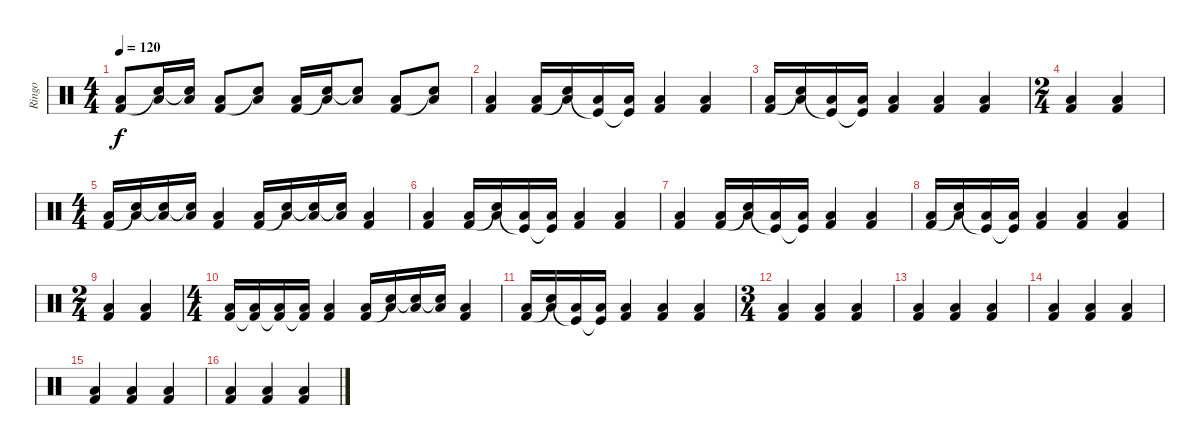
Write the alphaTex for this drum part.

\track ("Ringo" "Ringo") {instrument percussion}
\staff {score}
\articulation defaults
\ts (4 4)
\tempo 120
\clef neutral
\ks c
("Low Floor Tom (hit)" "Kick (hit) 2").8{dy f} ("Low Floor Tom (hit)" "Snare (hit)"{t}).16 ("Low Floor Tom (hit)" "Snare (hit)"{t}).16 ("Low Floor Tom (hit)" "Kick (hit) 2").8 ("Low Floor Tom (hit)" "Snare (hit)"{t}).8 ("Low Floor Tom (hit)" "Kick (hit) 2").16 ("Low Floor Tom (hit)" "Snare (hit)"{t}).16 ("Low Floor Tom (hit)" "Snare (hit)"{t}).8 ("Low Floor Tom (hit)" "Kick (hit) 2").8 ("Low Floor Tom (hit)" "Snare (hit)"{t}).8 |
("Low Floor Tom (hit)" "Kick (hit) 2").4 ("Low Floor Tom (hit)" "Kick (hit) 2").16 ("Low Floor Tom (hit)" "Snare (hit)"{t}).16 ("Low Floor Tom (hit)" "Kick (hit)"{t}).16 ("Low Floor Tom (hit)" "Kick (hit)"{t}).16 ("Low Floor Tom (hit)" "Kick (hit) 2").4 ("Low Floor Tom (hit)" "Kick (hit) 2").4 |
("Low Floor Tom (hit)" "Kick (hit) 2").16 ("Low Floor Tom (hit)" "Snare (hit)"{t}).16 ("Low Floor Tom (hit)" "Kick (hit)"{t}).16 ("Low Floor Tom (hit)" "Kick (hit)"{t}).16 ("Low Floor Tom (hit)" "Kick (hit) 2").4 ("Low Floor Tom (hit)" "Kick (hit) 2").4 ("Low Floor Tom (hit)" "Kick (hit) 2").4 |
\ts (2 4)
("Low Floor Tom (hit)" "Kick (hit) 2").4 ("Low Floor Tom (hit)" "Kick (hit) 2").4 |
\ts (4 4)
("Low Floor Tom (hit)" "Kick (hit) 2").16 ("Low Floor Tom (hit)" "Snare (hit)"{t}).16 ("Low Floor Tom (hit)" "Snare (hit)"{t}).16 ("Low Floor Tom (hit)" "Snare (hit)"{t}).16 ("Low Floor Tom (hit)" "Kick (hit) 2").4 ("Low Floor Tom (hit)" "Kick (hit) 2").16 ("Low Floor Tom (hit)" "Snare (hit)"{t}).16 ("Low Floor Tom (hit)" "Snare (hit)"{t}).16 ("Low Floor Tom (hit)" "Snare (hit)"{t}).16 ("Low Floor Tom (hit)" "Kick (hit) 2").4 |
("Low Floor Tom (hit)" "Kick (hit) 2").4 ("Low Floor Tom (hit)" "Kick (hit) 2").16 ("Low Floor Tom (hit)" "Snare (hit)"{t}).16 ("Low Floor Tom (hit)" "Kick (hit)"{t}).16 ("Low Floor Tom (hit)" "Kick (hit)"{t}).16 ("Low Floor Tom (hit)" "Kick (hit) 2").4 ("Low Floor Tom (hit)" "Kick (hit) 2").4 |
("Low Floor Tom (hit)" "Kick (hit) 2").4 ("Low Floor Tom (hit)" "Kick (hit) 2").16 ("Low Floor Tom (hit)" "Snare (hit)"{t}).16 ("Low Floor Tom (hit)" "Kick (hit)"{t}).16 ("Low Floor Tom (hit)" "Kick (hit)"{t}).16 ("Low Floor Tom (hit)" "Kick (hit) 2").4 ("Low Floor Tom (hit)" "Kick (hit) 2").4 |
("Low Floor Tom (hit)" "Kick (hit) 2").16 ("Low Floor Tom (hit)" "Snare (hit)"{t}).16 ("Low Floor Tom (hit)" "Kick (hit)"{t}).16 ("Low Floor Tom (hit)" "Kick (hit)"{t}).16 ("Low Floor Tom (hit)" "Kick (hit) 2").4 ("Low Floor Tom (hit)" "Kick (hit) 2").4 ("Low Floor Tom (hit)" "Kick (hit) 2").4 |
\ts (2 4)
("Low Floor Tom (hit)" "Kick (hit) 2").4 ("Low Floor Tom (hit)" "Kick (hit) 2").4 |
\ts (4 4)
("Low Floor Tom (hit)" "Kick (hit) 2").16 ("Low Floor Tom (hit)" "Kick (hit) 2"{t}).16 ("Low Floor Tom (hit)" "Kick (hit) 2"{t}).16 ("Low Floor Tom (hit)" "Kick (hit) 2"{t}).16 ("Low Floor Tom (hit)" "Kick (hit) 2").4 ("Low Floor Tom (hit)" "Kick (hit) 2").16 ("Low Floor Tom (hit)" "Snare (hit)"{t}).16 ("Low Floor Tom (hit)" "Snare (hit)"{t}).16 ("Low Floor Tom (hit)" "Snare (hit)"{t}).16 ("Low Floor Tom (hit)" "Kick (hit) 2").4 |
("Low Floor Tom (hit)" "Kick (hit) 2").16 ("Low Floor Tom (hit)" "Snare (hit)"{t}).16 ("Low Floor Tom (hit)" "Kick (hit)"{t}).16 ("Low Floor Tom (hit)" "Kick (hit)"{t}).16 ("Low Floor Tom (hit)" "Kick (hit) 2").4 ("Low Floor Tom (hit)" "Kick (hit) 2").4 ("Low Floor Tom (hit)" "Kick (hit) 2").4 |
\ts (3 4)
("Low Floor Tom (hit)" "Kick (hit) 2").4 ("Low Floor Tom (hit)" "Kick (hit) 2").4 ("Low Floor Tom (hit)" "Kick (hit) 2").4 |
("Low Floor Tom (hit)" "Kick (hit) 2").4 ("Low Floor Tom (hit)" "Kick (hit) 2").4 ("Low Floor Tom (hit)" "Kick (hit) 2").4 |
("Low Floor Tom (hit)" "Kick (hit) 2").4 ("Low Floor Tom (hit)" "Kick (hit) 2").4 ("Low Floor Tom (hit)" "Kick (hit) 2").4 |
("Low Floor Tom (hit)" "Kick (hit) 2").4 ("Low Floor Tom (hit)" "Kick (hit) 2").4 ("Low Floor Tom (hit)" "Kick (hit) 2").4 |
("Low Floor Tom (hit)" "Kick (hit) 2").4 ("Low Floor Tom (hit)" "Kick (hit) 2").4 ("Low Floor Tom (hit)" "Kick (hit) 2").4
